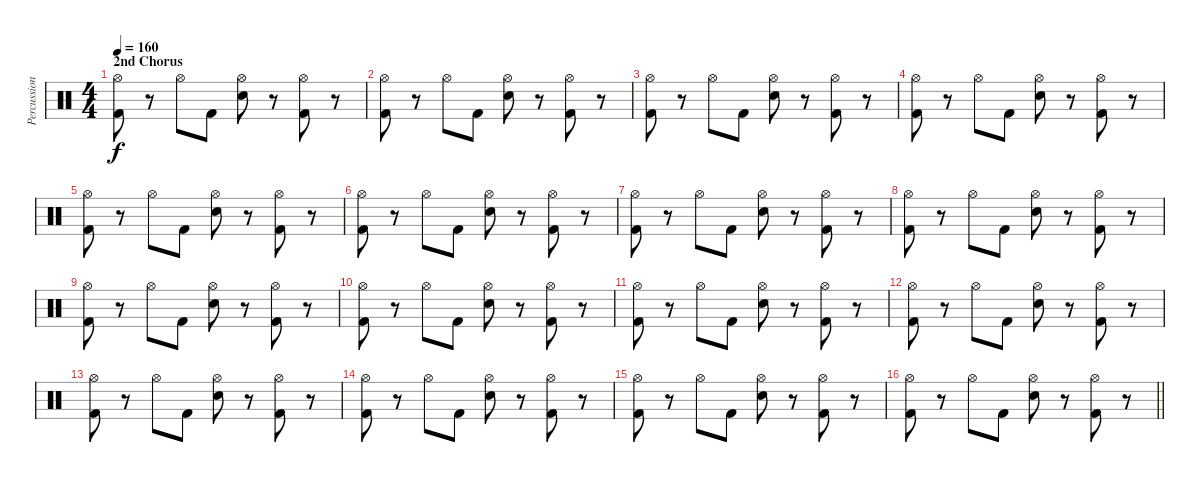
\track ("Percussion" "Percussion") {instrument percussion}
\staff {score}
\articulation defaults
\ts (4 4)
\section ("" "2nd Chorus")
\tempo 160
\clef neutral
\ks c
("Kick (hit) 2" "Hi-Hat (open)").8{dy f} r.8 "Hi-Hat (open)".8 "Kick (hit) 2".8 ("Electric Snare (hit)" "Hi-Hat (open)").8 r.8 ("Kick (hit) 2" "Hi-Hat (open)").8 r.8 |
("Kick (hit) 2" "Hi-Hat (open)").8 r.8 "Hi-Hat (open)".8 "Kick (hit) 2".8 ("Electric Snare (hit)" "Hi-Hat (open)").8 r.8 ("Kick (hit) 2" "Hi-Hat (open)").8 r.8 |
("Kick (hit) 2" "Hi-Hat (open)").8 r.8 "Hi-Hat (open)".8 "Kick (hit) 2".8 ("Electric Snare (hit)" "Hi-Hat (open)").8 r.8 ("Kick (hit) 2" "Hi-Hat (open)").8 r.8 |
("Kick (hit) 2" "Hi-Hat (open)").8 r.8 "Hi-Hat (open)".8 "Kick (hit) 2".8 ("Electric Snare (hit)" "Hi-Hat (open)").8 r.8 ("Kick (hit) 2" "Hi-Hat (open)").8 r.8 |
("Kick (hit) 2" "Hi-Hat (open)").8 r.8 "Hi-Hat (open)".8 "Kick (hit) 2".8 ("Electric Snare (hit)" "Hi-Hat (open)").8 r.8 ("Kick (hit) 2" "Hi-Hat (open)").8 r.8 |
("Kick (hit) 2" "Hi-Hat (open)").8 r.8 "Hi-Hat (open)".8 "Kick (hit) 2".8 ("Electric Snare (hit)" "Hi-Hat (open)").8 r.8 ("Kick (hit) 2" "Hi-Hat (open)").8 r.8 |
("Kick (hit) 2" "Hi-Hat (open)").8 r.8 "Hi-Hat (open)".8 "Kick (hit) 2".8 ("Electric Snare (hit)" "Hi-Hat (open)").8 r.8 ("Kick (hit) 2" "Hi-Hat (open)").8 r.8 |
("Kick (hit) 2" "Hi-Hat (open)").8 r.8 "Hi-Hat (open)".8 "Kick (hit) 2".8 ("Electric Snare (hit)" "Hi-Hat (open)").8 r.8 ("Kick (hit) 2" "Hi-Hat (open)").8 r.8 |
("Kick (hit) 2" "Hi-Hat (open)").8 r.8 "Hi-Hat (open)".8 "Kick (hit) 2".8 ("Electric Snare (hit)" "Hi-Hat (open)").8 r.8 ("Kick (hit) 2" "Hi-Hat (open)").8 r.8 |
("Kick (hit) 2" "Hi-Hat (open)").8 r.8 "Hi-Hat (open)".8 "Kick (hit) 2".8 ("Electric Snare (hit)" "Hi-Hat (open)").8 r.8 ("Kick (hit) 2" "Hi-Hat (open)").8 r.8 |
("Kick (hit) 2" "Hi-Hat (open)").8 r.8 "Hi-Hat (open)".8 "Kick (hit) 2".8 ("Electric Snare (hit)" "Hi-Hat (open)").8 r.8 ("Kick (hit) 2" "Hi-Hat (open)").8 r.8 |
("Kick (hit) 2" "Hi-Hat (open)").8 r.8 "Hi-Hat (open)".8 "Kick (hit) 2".8 ("Electric Snare (hit)" "Hi-Hat (open)").8 r.8 ("Kick (hit) 2" "Hi-Hat (open)").8 r.8 |
("Kick (hit) 2" "Hi-Hat (open)").8 r.8 "Hi-Hat (open)".8 "Kick (hit) 2".8 ("Electric Snare (hit)" "Hi-Hat (open)").8 r.8 ("Kick (hit) 2" "Hi-Hat (open)").8 r.8 |
("Kick (hit) 2" "Hi-Hat (open)").8 r.8 "Hi-Hat (open)".8 "Kick (hit) 2".8 ("Electric Snare (hit)" "Hi-Hat (open)").8 r.8 ("Kick (hit) 2" "Hi-Hat (open)").8 r.8 |
("Kick (hit) 2" "Hi-Hat (open)").8 r.8 "Hi-Hat (open)".8 "Kick (hit) 2".8 ("Electric Snare (hit)" "Hi-Hat (open)").8 r.8 ("Kick (hit) 2" "Hi-Hat (open)").8 r.8 |
\barLineRight lightlight
("Kick (hit) 2" "Hi-Hat (open)").8 r.8 "Hi-Hat (open)".8 "Kick (hit) 2".8 ("Electric Snare (hit)" "Hi-Hat (open)").8 r.8 ("Kick (hit) 2" "Hi-Hat (open)").8 r.8
